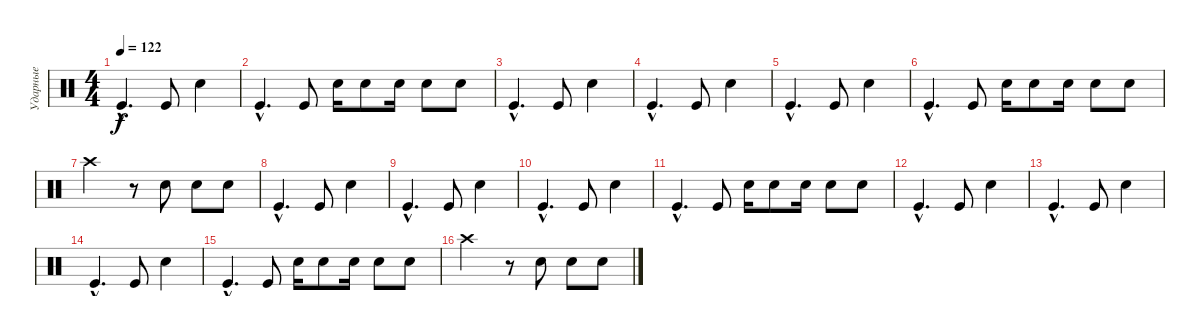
\track ("Ударные" "Ударные") {instrument percussion}
\staff {score}
\articulation defaults
\ts (4 4)
\tempo 122
\clef neutral
\ks c "Kick (hit)"{hac}.4{d dy f} "Kick (hit)".8 "Electric Snare (hit)".4
|
"Kick (hit)"{hac}.4{d} "Kick (hit)".8 "Electric Snare (hit)".16 "Electric Snare (hit)".8 "Electric Snare (hit)".16 "Electric Snare (hit)".8 "Electric Snare (hit)".8 |
"Kick (hit)"{hac}.4{d} "Kick (hit)".8 "Electric Snare (hit)".4 |
"Kick (hit)"{hac}.4{d} "Kick (hit)".8 "Electric Snare (hit)".4 |
"Kick (hit)"{hac}.4{d} "Kick (hit)".8 "Electric Snare (hit)".4 |
"Kick (hit)"{hac}.4{d} "Kick (hit)".8 "Electric Snare (hit)".16 "Electric Snare (hit)".8 "Electric Snare (hit)".16 "Electric Snare (hit)".8 "Electric Snare (hit)".8 |
"Crash high (hit)".2 r.8 "Electric Snare (hit)".8 "Electric Snare (hit)".8 "Electric Snare (hit)".8 |
"Kick (hit)"{hac}.4{d} "Kick (hit)".8 "Electric Snare (hit)".4 |
"Kick (hit)"{hac}.4{d} "Kick (hit)".8 "Electric Snare (hit)".4 |
"Kick (hit)"{hac}.4{d} "Kick (hit)".8 "Electric Snare (hit)".4 |
"Kick (hit)"{hac}.4{d} "Kick (hit)".8 "Electric Snare (hit)".16 "Electric Snare (hit)".8 "Electric Snare (hit)".16 "Electric Snare (hit)".8 "Electric Snare (hit)".8 |
"Kick (hit)"{hac}.4{d} "Kick (hit)".8 "Electric Snare (hit)".4 |
"Kick (hit)"{hac}.4{d} "Kick (hit)".8 "Electric Snare (hit)".4 |
"Kick (hit)"{hac}.4{d} "Kick (hit)".8 "Electric Snare (hit)".4 |
"Kick (hit)"{hac}.4{d} "Kick (hit)".8 "Electric Snare (hit)".16 "Electric Snare (hit)".8 "Electric Snare (hit)".16 "Electric Snare (hit)".8 "Electric Snare (hit)".8 |
"Crash high (hit)".2 r.8 "Electric Snare (hit)".8 "Electric Snare (hit)".8 "Electric Snare (hit)".8
